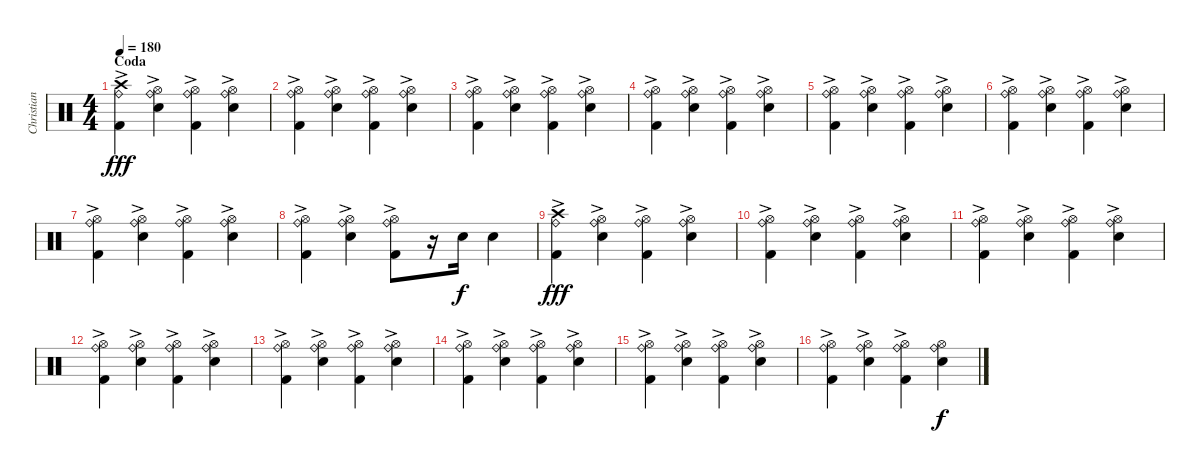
\track ("Christian Meyer" "Christian ") {instrument percussion}
\staff {score}
\articulation defaults
\ts (4 4)
\section ("" "Coda")
\tempo 180
\clef neutral
\ks c
("Ride (bell)"{ac} "Crash high (hit)" "Kick (hit) 2").4{dy fff volume 14} ("Hi-Hat (open)" "Ride (bell)"{ac} "Electric Snare (hit)").4 ("Hi-Hat (open)" "Ride (bell)"{ac} "Kick (hit) 2").4 ("Hi-Hat (open)" "Ride (bell)"{ac} "Electric Snare (hit)").4 |
("Hi-Hat (open)" "Ride (bell)"{ac} "Kick (hit) 2").4 ("Hi-Hat (open)" "Ride (bell)"{ac} "Electric Snare (hit)").4 ("Hi-Hat (open)" "Ride (bell)"{ac} "Kick (hit) 2").4 ("Hi-Hat (open)" "Ride (bell)"{ac} "Electric Snare (hit)").4 |
("Hi-Hat (open)" "Ride (bell)"{ac} "Kick (hit) 2").4 ("Hi-Hat (open)" "Ride (bell)"{ac} "Electric Snare (hit)").4 ("Hi-Hat (open)" "Ride (bell)"{ac} "Kick (hit) 2").4 ("Hi-Hat (open)" "Ride (bell)"{ac} "Electric Snare (hit)").4 |
("Hi-Hat (open)" "Ride (bell)"{ac} "Kick (hit) 2").4 ("Hi-Hat (open)" "Ride (bell)"{ac} "Electric Snare (hit)").4 ("Hi-Hat (open)" "Ride (bell)"{ac} "Kick (hit) 2").4 ("Hi-Hat (open)" "Ride (bell)"{ac} "Electric Snare (hit)").4 |
("Hi-Hat (open)" "Ride (bell)"{ac} "Kick (hit) 2").4 ("Hi-Hat (open)" "Ride (bell)"{ac} "Electric Snare (hit)").4 ("Hi-Hat (open)" "Ride (bell)"{ac} "Kick (hit) 2").4 ("Hi-Hat (open)" "Ride (bell)"{ac} "Electric Snare (hit)").4 |
("Hi-Hat (open)" "Ride (bell)"{ac} "Kick (hit) 2").4 ("Hi-Hat (open)" "Ride (bell)"{ac} "Electric Snare (hit)").4 ("Hi-Hat (open)" "Ride (bell)"{ac} "Kick (hit) 2").4 ("Hi-Hat (open)" "Ride (bell)"{ac} "Electric Snare (hit)").4 |
("Hi-Hat (open)" "Ride (bell)"{ac} "Kick (hit) 2").4 ("Hi-Hat (open)" "Ride (bell)"{ac} "Electric Snare (hit)").4 ("Hi-Hat (open)" "Ride (bell)"{ac} "Kick (hit) 2").4 ("Hi-Hat (open)" "Ride (bell)"{ac} "Electric Snare (hit)").4 |
("Hi-Hat (open)" "Ride (bell)"{ac} "Kick (hit) 2").4 ("Hi-Hat (open)" "Ride (bell)"{ac} "Electric Snare (hit)").4 ("Hi-Hat (open)" "Ride (bell)"{ac} "Kick (hit) 2").8 r.16 "Electric Snare (hit)".16{dy f} "Electric Snare (hit)".4 |
("Crash high (hit)" "Ride (bell)"{ac} "Kick (hit) 2").4{dy fff} ("Hi-Hat (open)" "Ride (bell)"{ac} "Electric Snare (hit)").4 ("Hi-Hat (open)" "Ride (bell)"{ac} "Kick (hit) 2").4 ("Hi-Hat (open)" "Ride (bell)"{ac} "Electric Snare (hit)").4 |
("Hi-Hat (open)" "Ride (bell)"{ac} "Kick (hit) 2").4 ("Hi-Hat (open)" "Ride (bell)"{ac} "Electric Snare (hit)").4 ("Hi-Hat (open)" "Ride (bell)"{ac} "Kick (hit) 2").4 ("Hi-Hat (open)" "Ride (bell)"{ac} "Electric Snare (hit)").4 |
("Hi-Hat (open)" "Ride (bell)"{ac} "Kick (hit) 2").4 ("Hi-Hat (open)" "Ride (bell)"{ac} "Electric Snare (hit)").4 ("Hi-Hat (open)" "Ride (bell)"{ac} "Kick (hit) 2").4 ("Hi-Hat (open)" "Ride (bell)"{ac} "Electric Snare (hit)").4 |
("Hi-Hat (open)" "Ride (bell)"{ac} "Kick (hit) 2").4 ("Hi-Hat (open)" "Ride (bell)"{ac} "Electric Snare (hit)").4 ("Hi-Hat (open)" "Ride (bell)"{ac} "Kick (hit) 2").4 ("Hi-Hat (open)" "Ride (bell)"{ac} "Electric Snare (hit)").4 |
("Hi-Hat (open)" "Ride (bell)"{ac} "Kick (hit) 2").4 ("Hi-Hat (open)" "Ride (bell)"{ac} "Electric Snare (hit)").4 ("Hi-Hat (open)" "Ride (bell)"{ac} "Kick (hit) 2").4 ("Hi-Hat (open)" "Ride (bell)"{ac} "Electric Snare (hit)").4 |
("Hi-Hat (open)" "Ride (bell)"{ac} "Kick (hit) 2").4 ("Hi-Hat (open)" "Ride (bell)"{ac} "Electric Snare (hit)").4 ("Hi-Hat (open)" "Ride (bell)"{ac} "Kick (hit) 2").4 ("Hi-Hat (open)" "Ride (bell)"{ac} "Electric Snare (hit)").4 |
("Hi-Hat (open)" "Ride (bell)"{ac} "Kick (hit) 2").4 ("Hi-Hat (open)" "Ride (bell)"{ac} "Electric Snare (hit)").4 ("Hi-Hat (open)" "Ride (bell)"{ac} "Kick (hit) 2").4 ("Hi-Hat (open)" "Ride (bell)"{ac} "Electric Snare (hit)").4 |
("Hi-Hat (open)" "Ride (bell)"{ac} "Kick (hit) 2").4 ("Hi-Hat (open)" "Ride (bell)"{ac} "Electric Snare (hit)").4 ("Hi-Hat (open)" "Ride (bell)"{ac} "Kick (hit) 2").4 ("Hi-Hat (open)" "Ride (bell)" "Electric Snare (hit)").4{dy f}
